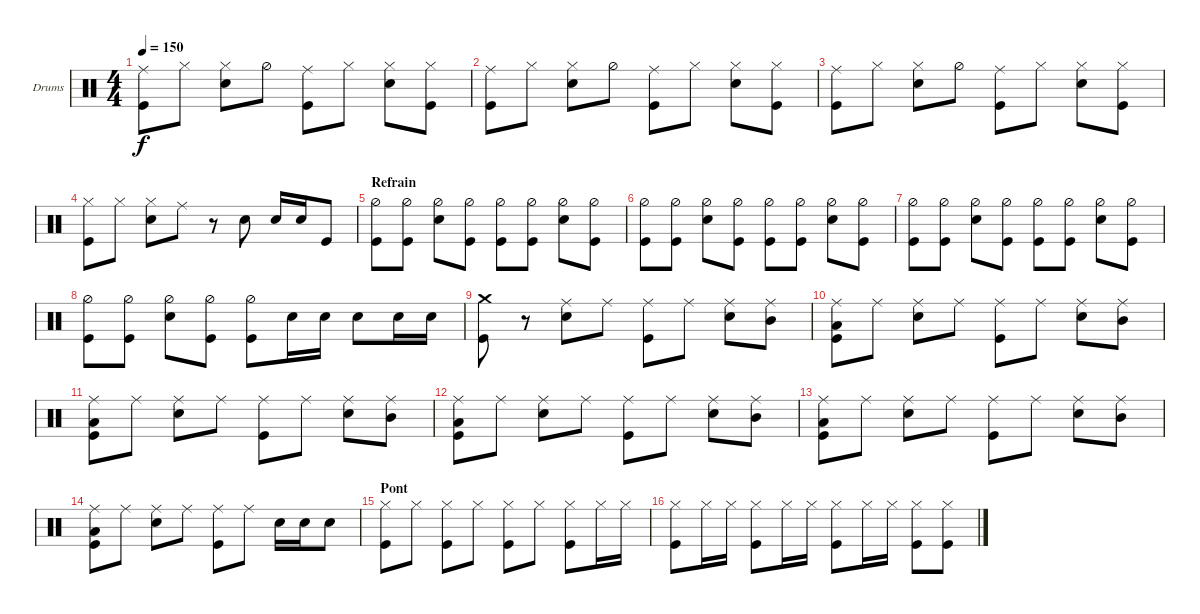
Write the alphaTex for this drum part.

\bracketExtendMode groupsimilarinstruments
\firstSystemTrackNameOrientation horizontal
\otherSystemsTrackNameOrientation horizontal
\track ("Drumkit" "Drums") {instrument percussion}
\staff {score}
\articulation defaults
\ts (4 4)
\tempo 150
\clef neutral
\ks c
("Kick (hit)" "Ride (middle)").8{dy f} "Hi-Hat (closed)".8 ("Hi-Hat (closed)" "Snare (hit) 2").8 "Hi-Hat (half)".8 ("Kick (hit)" "Ride (middle)").8 "Hi-Hat (closed)".8 ("Hi-Hat (closed)" "Snare (hit) 2").8 ("Hi-Hat (closed)" "Kick (hit)").8 |
("Kick (hit)" "Ride (middle)").8 "Hi-Hat (closed)".8 ("Hi-Hat (closed)" "Snare (hit) 2").8 "Hi-Hat (half)".8 ("Kick (hit)" "Ride (middle)").8 "Hi-Hat (closed)".8 ("Hi-Hat (closed)" "Snare (hit) 2").8 ("Hi-Hat (closed)" "Kick (hit)").8 |
("Kick (hit)" "Ride (middle)").8 "Hi-Hat (closed)".8 ("Hi-Hat (closed)" "Snare (hit) 2").8 "Hi-Hat (half)".8 ("Kick (hit)" "Ride (middle)").8 "Hi-Hat (closed)".8 ("Hi-Hat (closed)" "Snare (hit) 2").8 ("Hi-Hat (closed)" "Kick (hit)").8 |
("Kick (hit)" "Hi-Hat (closed)").8 "Hi-Hat (closed)".8 ("Hi-Hat (closed)" "Snare (hit) 2").8 "Ride (middle)".8 r.8 "Snare (hit) 2".8 "Snare (hit) 2".16 "Snare (hit) 2".16 "Kick (hit)".8 |
\section ("" "Refrain")
("Kick (hit)" "Hi-Hat (half)").8 ("Hi-Hat (half)" "Kick (hit)").8 ("Hi-Hat (half)" "Snare (hit) 2").8 ("Hi-Hat (half)" "Kick (hit)").8 ("Hi-Hat (half)" "Kick (hit)").8 ("Hi-Hat (half)" "Kick (hit)").8 ("Hi-Hat (half)" "Snare (hit) 2").8 ("Hi-Hat (half)" "Kick (hit)").8 |
("Hi-Hat (half)" "Kick (hit)").8 ("Hi-Hat (half)" "Kick (hit)").8 ("Hi-Hat (half)" "Snare (hit) 2").8 ("Hi-Hat (half)" "Kick (hit)").8 ("Hi-Hat (half)" "Kick (hit)").8 ("Hi-Hat (half)" "Kick (hit)").8 ("Hi-Hat (half)" "Snare (hit) 2").8 ("Hi-Hat (half)" "Kick (hit)").8 |
("Hi-Hat (half)" "Kick (hit)").8 ("Hi-Hat (half)" "Kick (hit)").8 ("Hi-Hat (half)" "Snare (hit) 2").8 ("Hi-Hat (half)" "Kick (hit)").8 ("Hi-Hat (half)" "Kick (hit)").8 ("Hi-Hat (half)" "Kick (hit)").8 ("Hi-Hat (half)" "Snare (hit) 2").8 ("Hi-Hat (half)" "Kick (hit)").8 |
("Hi-Hat (half)" "Kick (hit)").8 ("Hi-Hat (half)" "Kick (hit)").8 ("Hi-Hat (half)" "Snare (hit) 2").8 ("Hi-Hat (half)" "Kick (hit)").8 ("Hi-Hat (half)" "Kick (hit)").8 "Snare (hit) 2".16 "Snare (hit) 2".16 "Snare (hit) 2".8 "Snare (hit) 2".16 "Snare (hit) 2".16 |
("Kick (hit)" "Crash medium (hit)").8 r.8 ("Snare (hit) 2" "Ride (middle)").8 "Ride (middle)".8 ("Kick (hit)" "Ride (middle)").8 "Ride (middle)".8 ("Snare (hit) 2" "Ride (middle)").8 ("Ride (middle)" "Mid Tom (hit)").8 |
("Kick (hit)" "Ride (middle)" "Low Tom (hit)").8 "Ride (middle)".8 ("Snare (hit) 2" "Ride (middle)").8 "Ride (middle)".8 ("Kick (hit)" "Ride (middle)").8 "Ride (middle)".8 ("Snare (hit) 2" "Ride (middle)").8 ("Ride (middle)" "Mid Tom (hit)").8 |
("Kick (hit)" "Ride (middle)" "Low Tom (hit)").8 "Ride (middle)".8 ("Snare (hit) 2" "Ride (middle)").8 "Ride (middle)".8 ("Kick (hit)" "Ride (middle)").8 "Ride (middle)".8 ("Snare (hit) 2" "Ride (middle)").8 ("Ride (middle)" "Mid Tom (hit)").8 |
("Kick (hit)" "Ride (middle)" "Low Tom (hit)").8 "Ride (middle)".8 ("Snare (hit) 2" "Ride (middle)").8 "Ride (middle)".8 ("Kick (hit)" "Ride (middle)").8 "Ride (middle)".8 ("Snare (hit) 2" "Ride (middle)").8 ("Ride (middle)" "Mid Tom (hit)").8 |
("Kick (hit)" "Ride (middle)" "Low Tom (hit)").8 "Ride (middle)".8 ("Snare (hit) 2" "Ride (middle)").8 "Ride (middle)".8 ("Kick (hit)" "Ride (middle)").8 "Ride (middle)".8 ("Snare (hit) 2" "Ride (middle)").8 ("Ride (middle)" "Mid Tom (hit)").8 |
("Kick (hit)" "Ride (middle)" "Low Tom (hit)").8 "Ride (middle)".8 ("Snare (hit) 2" "Ride (middle)").8 "Ride (middle)".8 ("Kick (hit)" "Ride (middle)").8 "Ride (middle)".8 "Snare (hit) 2".16 "Snare (hit) 2".16 "Snare (hit) 2".8 |
\section ("" "Pont")
("Hi-Hat (closed)" "Kick (hit)").8 "Hi-Hat (closed)".8 ("Hi-Hat (closed)" "Kick (hit)").8 "Hi-Hat (closed)".8 ("Hi-Hat (closed)" "Kick (hit)").8 "Hi-Hat (closed)".8 ("Hi-Hat (closed)" "Kick (hit)").8 "Hi-Hat (closed)".16 "Hi-Hat (closed)".16 |
("Hi-Hat (closed)" "Kick (hit)").8 "Hi-Hat (closed)".16 "Hi-Hat (closed)".16 ("Hi-Hat (closed)" "Kick (hit)").8 "Hi-Hat (closed)".16 "Hi-Hat (closed)".16 ("Hi-Hat (closed)" "Kick (hit)").8 "Hi-Hat (closed)".16 "Hi-Hat (closed)".16 ("Hi-Hat (closed)" "Kick (hit)").8 ("Hi-Hat (closed)" "Kick (hit)").8
